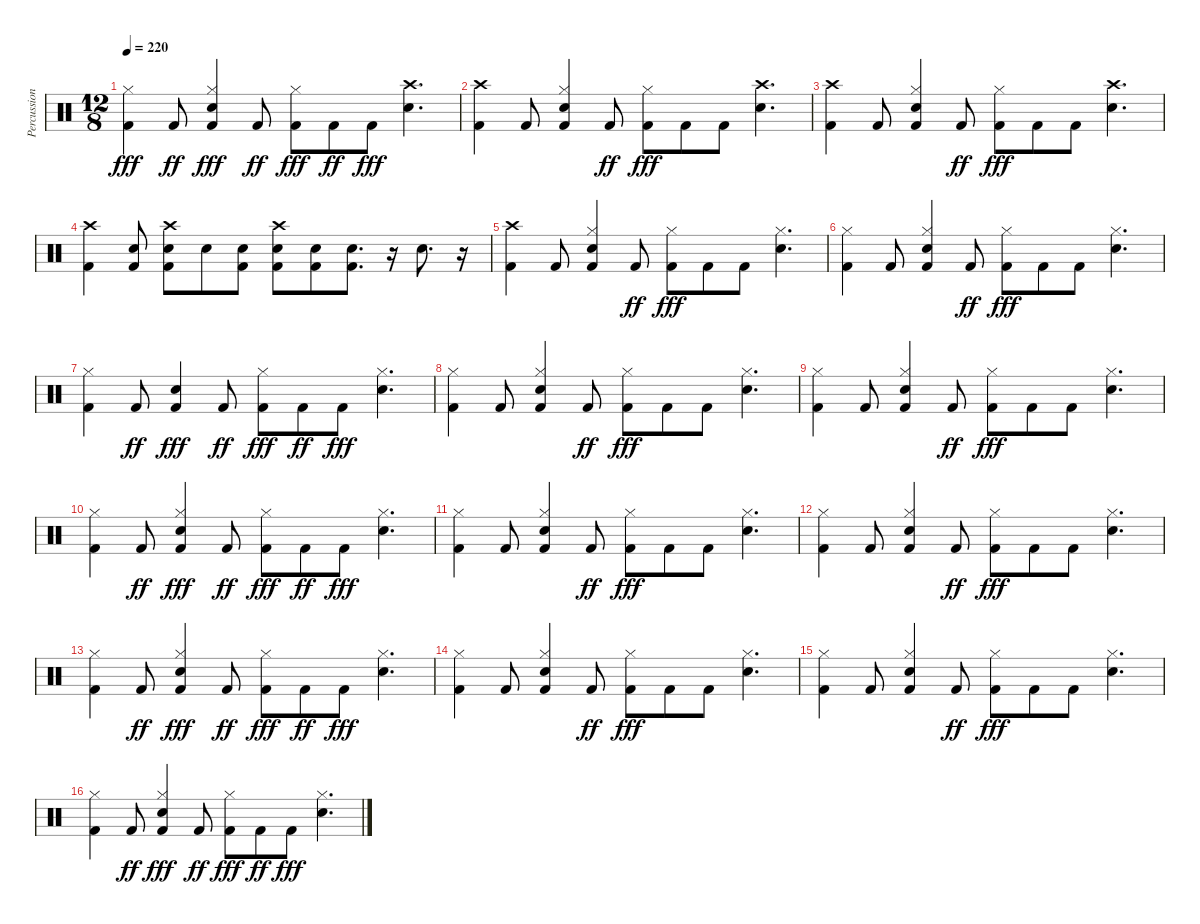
\track ("Percussion" "Percussion") {instrument percussion}
\staff {score}
\articulation defaults
\ts (12 8)
\tempo 220
\clef neutral
\ks c
("Kick (hit) 2" "Hi-Hat (closed)").4{dy fff} "Kick (hit) 2".8{dy ff} ("Kick (hit) 2" "Snare (hit) 2" "Hi-Hat (closed)").4{dy fff} "Kick (hit) 2".8{dy ff} ("Kick (hit) 2" "Hi-Hat (closed)").8{dy fff} "Kick (hit) 2".8{dy ff} "Kick (hit) 2".8{dy fff} ("Snare (hit) 2" "Crash high (hit)").4{d} |
("Kick (hit) 2" "Crash high (hit)").4 "Kick (hit) 2".8 ("Kick (hit) 2" "Snare (hit) 2" "Hi-Hat (closed)").4 "Kick (hit) 2".8{dy ff} ("Kick (hit) 2" "Hi-Hat (closed)").8{dy fff} "Kick (hit) 2".8 "Kick (hit) 2".8 ("Snare (hit) 2" "Crash high (hit)").4{d} |
("Kick (hit) 2" "Crash high (hit)").4 "Kick (hit) 2".8 ("Kick (hit) 2" "Snare (hit) 2" "Hi-Hat (closed)").4 "Kick (hit) 2".8{dy ff} ("Kick (hit) 2" "Hi-Hat (closed)").8{dy fff} "Kick (hit) 2".8 "Kick (hit) 2".8 ("Snare (hit) 2" "Crash high (hit)").4{d} |
("Kick (hit) 2" "Crash high (hit)").4 ("Kick (hit) 2" "Snare (hit) 2").8 ("Kick (hit) 2" "Snare (hit) 2" "Crash high (hit)").8 "Snare (hit) 2".8 ("Kick (hit) 2" "Snare (hit) 2").8 ("Kick (hit) 2" "Snare (hit) 2" "Crash high (hit)").8 ("Kick (hit) 2" "Snare (hit) 2").8 ("Kick (hit) 2" "Snare (hit) 2").8{d} r.16 "Snare (hit) 2".8{d} r.16 |
("Kick (hit) 2" "Crash high (hit)").4 "Kick (hit) 2".8 ("Kick (hit) 2" "Snare (hit) 2" "Hi-Hat (closed)").4 "Kick (hit) 2".8{dy ff} ("Kick (hit) 2" "Hi-Hat (closed)").8{dy fff} "Kick (hit) 2".8 "Kick (hit) 2".8 ("Snare (hit) 2" "Hi-Hat (closed)").4{d} |
("Kick (hit) 2" "Hi-Hat (closed)").4 "Kick (hit) 2".8 ("Kick (hit) 2" "Snare (hit) 2" "Hi-Hat (closed)").4 "Kick (hit) 2".8{dy ff} ("Kick (hit) 2" "Hi-Hat (closed)").8{dy fff} "Kick (hit) 2".8 "Kick (hit) 2".8 ("Snare (hit) 2" "Hi-Hat (closed)").4{d} |
("Kick (hit) 2" "Hi-Hat (closed)").4 "Kick (hit) 2".8{dy ff} ("Kick (hit) 2" "Snare (hit) 2").4{dy fff} "Kick (hit) 2".8{dy ff} ("Kick (hit) 2" "Hi-Hat (closed)").8{dy fff} "Kick (hit) 2".8{dy ff} "Kick (hit) 2".8{dy fff} ("Snare (hit) 2" "Hi-Hat (closed)").4{d} |
("Kick (hit) 2" "Hi-Hat (closed)").4 "Kick (hit) 2".8 ("Kick (hit) 2" "Snare (hit) 2" "Hi-Hat (closed)").4 "Kick (hit) 2".8{dy ff} ("Kick (hit) 2" "Hi-Hat (closed)").8{dy fff} "Kick (hit) 2".8 "Kick (hit) 2".8 ("Snare (hit) 2" "Hi-Hat (closed)").4{d} |
("Kick (hit) 2" "Hi-Hat (closed)").4 "Kick (hit) 2".8 ("Kick (hit) 2" "Snare (hit) 2" "Hi-Hat (closed)").4 "Kick (hit) 2".8{dy ff} ("Kick (hit) 2" "Hi-Hat (closed)").8{dy fff} "Kick (hit) 2".8 "Kick (hit) 2".8 ("Snare (hit) 2" "Hi-Hat (closed)").4{d} |
("Kick (hit) 2" "Hi-Hat (closed)").4 "Kick (hit) 2".8{dy ff} ("Kick (hit) 2" "Snare (hit) 2" "Hi-Hat (closed)").4{dy fff} "Kick (hit) 2".8{dy ff} ("Kick (hit) 2" "Hi-Hat (closed)").8{dy fff} "Kick (hit) 2".8{dy ff} "Kick (hit) 2".8{dy fff} ("Snare (hit) 2" "Hi-Hat (closed)").4{d} |
("Kick (hit) 2" "Hi-Hat (closed)").4 "Kick (hit) 2".8 ("Kick (hit) 2" "Snare (hit) 2" "Hi-Hat (closed)").4 "Kick (hit) 2".8{dy ff} ("Kick (hit) 2" "Hi-Hat (closed)").8{dy fff} "Kick (hit) 2".8 "Kick (hit) 2".8 ("Snare (hit) 2" "Hi-Hat (closed)").4{d} |
("Kick (hit) 2" "Hi-Hat (closed)").4 "Kick (hit) 2".8 ("Kick (hit) 2" "Snare (hit) 2" "Hi-Hat (closed)").4 "Kick (hit) 2".8{dy ff} ("Kick (hit) 2" "Hi-Hat (closed)").8{dy fff} "Kick (hit) 2".8 "Kick (hit) 2".8 ("Snare (hit) 2" "Hi-Hat (closed)").4{d} |
("Kick (hit) 2" "Hi-Hat (closed)").4 "Kick (hit) 2".8{dy ff} ("Kick (hit) 2" "Snare (hit) 2" "Hi-Hat (closed)").4{dy fff} "Kick (hit) 2".8{dy ff} ("Kick (hit) 2" "Hi-Hat (closed)").8{dy fff} "Kick (hit) 2".8{dy ff} "Kick (hit) 2".8{dy fff} ("Snare (hit) 2" "Hi-Hat (closed)").4{d} |
("Kick (hit) 2" "Hi-Hat (closed)").4 "Kick (hit) 2".8 ("Kick (hit) 2" "Snare (hit) 2" "Hi-Hat (closed)").4 "Kick (hit) 2".8{dy ff} ("Kick (hit) 2" "Hi-Hat (closed)").8{dy fff} "Kick (hit) 2".8 "Kick (hit) 2".8 ("Snare (hit) 2" "Hi-Hat (closed)").4{d} |
("Kick (hit) 2" "Hi-Hat (closed)").4 "Kick (hit) 2".8 ("Kick (hit) 2" "Snare (hit) 2" "Hi-Hat (closed)").4 "Kick (hit) 2".8{dy ff} ("Kick (hit) 2" "Hi-Hat (closed)").8{dy fff} "Kick (hit) 2".8 "Kick (hit) 2".8 ("Snare (hit) 2" "Hi-Hat (closed)").4{d} |
("Kick (hit) 2" "Hi-Hat (closed)").4 "Kick (hit) 2".8{dy ff} ("Kick (hit) 2" "Snare (hit) 2" "Hi-Hat (closed)").4{dy fff} "Kick (hit) 2".8{dy ff} ("Kick (hit) 2" "Hi-Hat (closed)").8{dy fff} "Kick (hit) 2".8{dy ff} "Kick (hit) 2".8{dy fff} ("Snare (hit) 2" "Hi-Hat (closed)").4{d}
